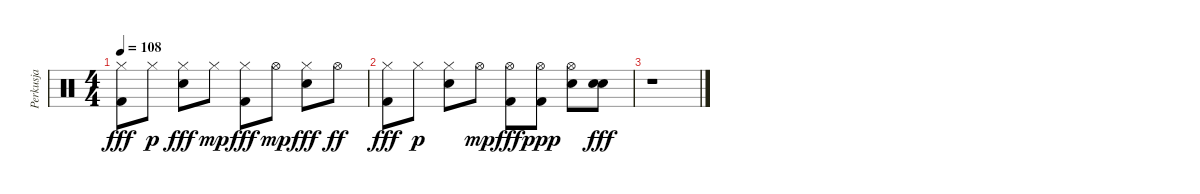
\track ("Perkusja" "Perkusja") {instrument percussion}
\staff {score}
\articulation defaults
\ts (4 4)
\tempo 108
\clef neutral
\ks c
("Hi-Hat (closed)" "Kick (hit) 2").8{dy fff} "Hi-Hat (closed)".8{dy p} ("Hi-Hat (closed)" "Snare (hit) 2").8{dy fff} "Hi-Hat (closed)".8{dy mp} ("Hi-Hat (closed)" "Kick (hit) 2").8{dy fff} "Hi-Hat (open)".8{dy mp} ("Hi-Hat (closed)" "Snare (hit) 2").8{dy fff} "Hi-Hat (open)".8{dy ff} |
("Hi-Hat (closed)" "Kick (hit) 2").8{dy fff} "Hi-Hat (closed)".8{dy p} ("Hi-Hat (closed)" "Snare (hit) 2").8 "Hi-Hat (open)".8{dy mp} ("Hi-Hat (open)" "Kick (hit) 2").8{dy fff} ("Hi-Hat (open)" "Kick (hit) 2").8{dy ppp} ("Hi-Hat (open)" "Snare (hit) 2").8 ("Snare (hit) 2" "Snare (hit) 2").8{dy fff} |
r.1
